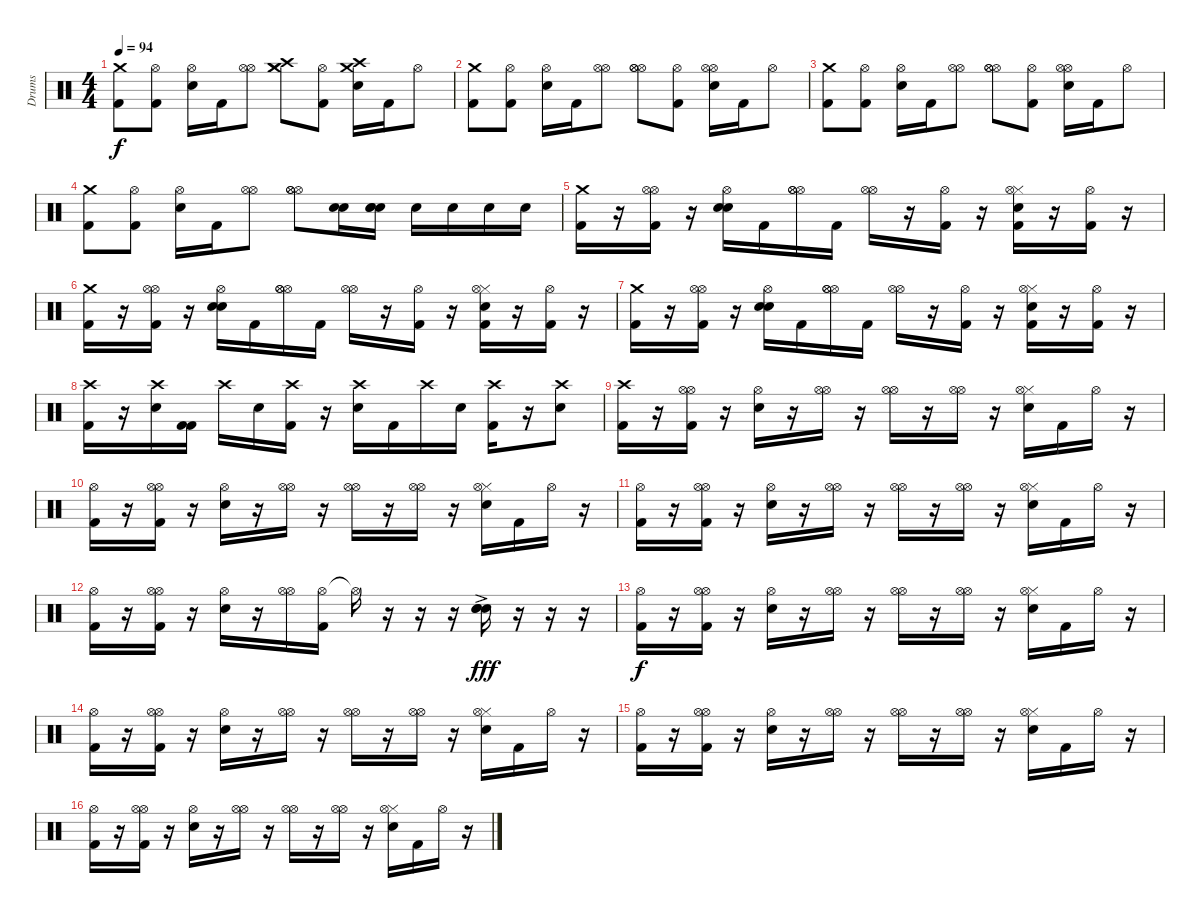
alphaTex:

\track ("Drums" "Drums") {instrument percussion}
\staff {score}
\articulation defaults
\ts (4 4)
\tempo 94
\clef neutral
\ks c
("Crash medium (hit)" "Kick (hit) 2").8{dy f} ("Kick (hit) 2" "Hi-Hat (open)").8 ("Hi-Hat (open)" "Snare (hit) 2").16 "Kick (hit) 2".16 ("Hi-Hat (open)" "Hi-Hat (open)").8 ("Crash medium (hit)" "Crash high (hit)" "Crash medium (hit)").8{volume 16} ("Hi-Hat (open)" "Kick (hit) 2").8 ("Crash medium (hit)" "Snare (hit) 2" "Crash high (hit)").16 "Kick (hit) 2".16 "Hi-Hat (open)".8 |
("Crash medium (hit)" "Kick (hit) 2").8 ("Kick (hit) 2" "Hi-Hat (open)").8 ("Hi-Hat (open)" "Snare (hit) 2").16 "Kick (hit) 2".16 ("Hi-Hat (open)" "Hi-Hat (open)").8 ("Hi-Hat (open)" "Hi-Hat (open)" "Hi-Hat (open)").8 ("Hi-Hat (open)" "Kick (hit) 2").8 ("Hi-Hat (open)" "Snare (hit) 2" "Hi-Hat (open)").16 "Kick (hit) 2".16 "Hi-Hat (open)".8 |
("Crash medium (hit)" "Kick (hit) 2").8 ("Kick (hit) 2" "Hi-Hat (open)").8 ("Hi-Hat (open)" "Snare (hit) 2").16 "Kick (hit) 2".16 ("Hi-Hat (open)" "Hi-Hat (open)").8 ("Hi-Hat (open)" "Hi-Hat (open)" "Hi-Hat (open)").8 ("Hi-Hat (open)" "Kick (hit) 2").8 ("Hi-Hat (open)" "Snare (hit) 2" "Hi-Hat (open)").16 "Kick (hit) 2".16 "Hi-Hat (open)".8 |
("Crash medium (hit)" "Kick (hit) 2").8{volume 14} ("Kick (hit) 2" "Hi-Hat (open)").8 ("Hi-Hat (open)" "Snare (hit) 2").16 "Kick (hit) 2".16 ("Hi-Hat (open)" "Hi-Hat (open)").8 ("Hi-Hat (open)" "Hi-Hat (open)" "Hi-Hat (open)").8 ("Snare (hit) 2" "Snare (hit) 2").16 ("Snare (hit) 2" "Snare (hit) 2" "Snare (hit) 2").16 "Snare (hit) 2".16 "Snare (hit) 2".16 "Snare (hit) 2".16 "Snare (hit) 2".16 |
("Crash medium (hit)" "Kick (hit) 2").16{volume 16} r.16 ("Hi-Hat (open)" "Hi-Hat (open)" "Kick (hit) 2").16 r.16 ("Hi-Hat (open)" "Snare (hit) 2" "Snare (hit) 2").16 "Kick (hit) 2".16 ("Hi-Hat (open)" "Hi-Hat (open)" "Hi-Hat (open)").16 "Kick (hit) 2".16 ("Hi-Hat (open)" "Hi-Hat (open)").16 r.16 ("Hi-Hat (open)" "Kick (hit) 2").16 r.16 ("Hi-Hat (closed)" "Snare (hit) 2" "Hi-Hat (open)" "Kick (hit) 2").16 r.16 ("Hi-Hat (open)" "Kick (hit) 2").16 r.16 |
("Crash medium (hit)" "Kick (hit) 2").16{volume 16} r.16 ("Hi-Hat (open)" "Hi-Hat (open)" "Kick (hit) 2").16 r.16 ("Hi-Hat (open)" "Snare (hit) 2" "Snare (hit) 2").16 "Kick (hit) 2".16 ("Hi-Hat (open)" "Hi-Hat (open)" "Hi-Hat (open)").16 "Kick (hit) 2".16 ("Hi-Hat (open)" "Hi-Hat (open)").16 r.16 ("Hi-Hat (open)" "Kick (hit) 2").16 r.16 ("Hi-Hat (closed)" "Snare (hit) 2" "Hi-Hat (open)" "Kick (hit) 2").16 r.16 ("Hi-Hat (open)" "Kick (hit) 2").16 r.16 |
("Crash medium (hit)" "Kick (hit) 2").16{volume 16} r.16 ("Hi-Hat (open)" "Hi-Hat (open)" "Kick (hit) 2").16 r.16 ("Hi-Hat (open)" "Snare (hit) 2" "Snare (hit) 2").16 "Kick (hit) 2".16 ("Hi-Hat (open)" "Hi-Hat (open)" "Hi-Hat (open)").16 "Kick (hit) 2".16 ("Hi-Hat (open)" "Hi-Hat (open)").16 r.16 ("Hi-Hat (open)" "Kick (hit) 2").16 r.16 ("Hi-Hat (closed)" "Snare (hit) 2" "Hi-Hat (open)" "Kick (hit) 2").16 r.16 ("Hi-Hat (open)" "Kick (hit) 2").16 r.16 |
("Crash high (hit)" "Kick (hit) 2").16 r.16 ("Crash high (hit)" "Snare (hit) 2").16 ("Kick (hit) 2" "Kick (hit) 2").16 "Crash high (hit)".16 "Snare (hit) 2".16 ("Crash high (hit)" "Kick (hit) 2").16 r.16 ("Crash high (hit)" "Snare (hit) 2").16 "Kick (hit) 2".16 "Crash high (hit)".16 "Snare (hit) 2".16 ("Kick (hit) 2" "Crash high (hit)").16 r.16 ("Crash high (hit)" "Snare (hit) 2").8 |
("Crash high (hit)" "Kick (hit) 2").16 r.16 ("Hi-Hat (open)" "Hi-Hat (open)" "Kick (hit) 2").16 r.16 ("Hi-Hat (open)" "Snare (hit) 2").16 r.16 ("Hi-Hat (open)" "Hi-Hat (open)").16 r.16 ("Hi-Hat (open)" "Hi-Hat (open)").16 r.16 ("Hi-Hat (open)" "Hi-Hat (open)").16 r.16 ("Hi-Hat (closed)" "Snare (hit) 2" "Hi-Hat (open)").16 "Kick (hit) 2".16 "Hi-Hat (open)".16 r.16 |
("Hi-Hat (open)" "Kick (hit) 2").16 r.16 ("Hi-Hat (open)" "Hi-Hat (open)" "Kick (hit) 2").16 r.16 ("Hi-Hat (open)" "Snare (hit) 2").16 r.16 ("Hi-Hat (open)" "Hi-Hat (open)").16 r.16 ("Hi-Hat (open)" "Hi-Hat (open)").16 r.16 ("Hi-Hat (open)" "Hi-Hat (open)").16 r.16 ("Hi-Hat (closed)" "Snare (hit) 2" "Hi-Hat (open)").16 "Kick (hit) 2".16 "Hi-Hat (open)".16 r.16 |
("Hi-Hat (open)" "Kick (hit) 2").16 r.16 ("Hi-Hat (open)" "Hi-Hat (open)" "Kick (hit) 2").16 r.16 ("Hi-Hat (open)" "Snare (hit) 2").16 r.16 ("Hi-Hat (open)" "Hi-Hat (open)").16 r.16 ("Hi-Hat (open)" "Hi-Hat (open)").16 r.16 ("Hi-Hat (open)" "Hi-Hat (open)").16 r.16 ("Hi-Hat (closed)" "Snare (hit) 2" "Hi-Hat (open)").16 "Kick (hit) 2".16 "Hi-Hat (open)".16 r.16 |
("Hi-Hat (open)" "Kick (hit) 2").16 r.16 ("Hi-Hat (open)" "Hi-Hat (open)" "Kick (hit) 2").16 r.16 ("Hi-Hat (open)" "Snare (hit) 2").16 r.16 ("Hi-Hat (open)" "Hi-Hat (open)").16 ("Hi-Hat (open)" "Kick (hit) 2").16 "Hi-Hat (open)"{t}.16 r.16 r.16 r.16 ("Snare (hit) 2"{ac} "Snare (hit) 2"{ac} "Snare (hit) 2"{ac}).16{dy fff} r.16 r.16 r.16 |
("Hi-Hat (open)" "Kick (hit) 2").16{dy f} r.16 ("Hi-Hat (open)" "Hi-Hat (open)" "Kick (hit) 2").16 r.16 ("Hi-Hat (open)" "Snare (hit) 2").16 r.16 ("Hi-Hat (open)" "Hi-Hat (open)").16 r.16 ("Hi-Hat (open)" "Hi-Hat (open)").16 r.16 ("Hi-Hat (open)" "Hi-Hat (open)").16 r.16 ("Hi-Hat (closed)" "Snare (hit) 2" "Hi-Hat (open)").16 "Kick (hit) 2".16 "Hi-Hat (open)".16 r.16 |
("Hi-Hat (open)" "Kick (hit) 2").16 r.16 ("Hi-Hat (open)" "Hi-Hat (open)" "Kick (hit) 2").16 r.16 ("Hi-Hat (open)" "Snare (hit) 2").16 r.16 ("Hi-Hat (open)" "Hi-Hat (open)").16 r.16 ("Hi-Hat (open)" "Hi-Hat (open)").16 r.16 ("Hi-Hat (open)" "Hi-Hat (open)").16 r.16 ("Hi-Hat (closed)" "Snare (hit) 2" "Hi-Hat (open)").16 "Kick (hit) 2".16 "Hi-Hat (open)".16 r.16 |
("Hi-Hat (open)" "Kick (hit) 2").16 r.16 ("Hi-Hat (open)" "Hi-Hat (open)" "Kick (hit) 2").16 r.16 ("Hi-Hat (open)" "Snare (hit) 2").16 r.16 ("Hi-Hat (open)" "Hi-Hat (open)").16 r.16 ("Hi-Hat (open)" "Hi-Hat (open)").16 r.16 ("Hi-Hat (open)" "Hi-Hat (open)").16 r.16 ("Hi-Hat (closed)" "Snare (hit) 2" "Hi-Hat (open)").16 "Kick (hit) 2".16 "Hi-Hat (open)".16 r.16 |
("Hi-Hat (open)" "Kick (hit) 2").16 r.16 ("Hi-Hat (open)" "Hi-Hat (open)" "Kick (hit) 2").16 r.16 ("Hi-Hat (open)" "Snare (hit) 2").16 r.16 ("Hi-Hat (open)" "Hi-Hat (open)").16 r.16 ("Hi-Hat (open)" "Hi-Hat (open)").16 r.16 ("Hi-Hat (open)" "Hi-Hat (open)").16 r.16 ("Hi-Hat (closed)" "Snare (hit) 2" "Hi-Hat (open)").16 "Kick (hit) 2".16 "Hi-Hat (open)".16 r.16
